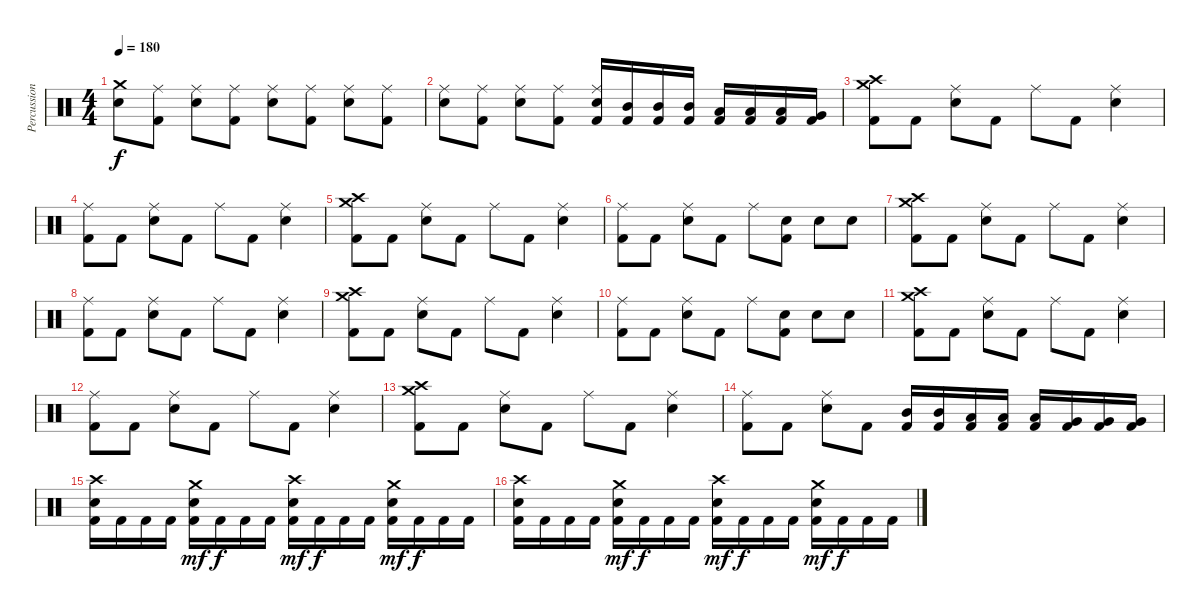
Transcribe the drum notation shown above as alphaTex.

\track ("Percussion" "Percussion") {instrument percussion}
\staff {score}
\articulation defaults
\ts (4 4)
\tempo 180
\clef neutral
\ks c
("Crash medium (hit)" "Electric Snare (hit)").8{dy f} ("Ride (middle)" "Kick (hit) 2").8 ("Ride (middle)" "Electric Snare (hit)").8 ("Ride (middle)" "Kick (hit) 2").8 ("Ride (middle)" "Electric Snare (hit)").8 ("Ride (middle)" "Kick (hit) 2").8 ("Ride (middle)" "Electric Snare (hit)").8 ("Ride (middle)" "Kick (hit) 2").8 |
("Ride (middle)" "Electric Snare (hit)").8 ("Ride (middle)" "Kick (hit) 2").8 ("Ride (middle)" "Electric Snare (hit)").8 ("Ride (middle)" "Kick (hit) 2").8 ("Ride (middle)" "Electric Snare (hit)" "Kick (hit) 2").16 ("Mid Tom (hit)" "Kick (hit) 2").16 ("Mid Tom (hit)" "Kick (hit) 2").16 ("Mid Tom (hit)" "Kick (hit) 2").16 ("Low Tom (hit)" "Kick (hit) 2").16 ("Low Tom (hit)" "Kick (hit) 2").16 ("Low Tom (hit)" "Kick (hit) 2").16 ("Very Low Tom (hit)" "Kick (hit) 2").16 |
("Crash high (hit)" "Crash medium (hit)" "Kick (hit) 2").8 "Kick (hit) 2".8 ("Ride (middle)" "Electric Snare (hit)").8 "Kick (hit) 2".8 "Ride (middle)".8 "Kick (hit) 2".8 ("Ride (middle)" "Electric Snare (hit)").4 |
("Ride (middle)" "Kick (hit) 2").8 "Kick (hit) 2".8 ("Ride (middle)" "Electric Snare (hit)").8 "Kick (hit) 2".8 "Ride (middle)".8 "Kick (hit) 2".8 ("Ride (middle)" "Electric Snare (hit)").4 |
("Crash high (hit)" "Crash medium (hit)" "Kick (hit) 2").8 "Kick (hit) 2".8 ("Ride (middle)" "Electric Snare (hit)").8 "Kick (hit) 2".8 "Ride (middle)".8 "Kick (hit) 2".8 ("Ride (middle)" "Electric Snare (hit)").4 |
("Ride (middle)" "Kick (hit) 2").8 "Kick (hit) 2".8 ("Ride (middle)" "Electric Snare (hit)").8 "Kick (hit) 2".8 "Ride (middle)".8 ("Electric Snare (hit)" "Kick (hit) 2").8 "Electric Snare (hit)".8 "Electric Snare (hit)".8 |
("Crash high (hit)" "Crash medium (hit)" "Kick (hit) 2").8 "Kick (hit) 2".8 ("Ride (middle)" "Electric Snare (hit)").8 "Kick (hit) 2".8 "Ride (middle)".8 "Kick (hit) 2".8 ("Ride (middle)" "Electric Snare (hit)").4 |
("Ride (middle)" "Kick (hit) 2").8 "Kick (hit) 2".8 ("Ride (middle)" "Electric Snare (hit)").8 "Kick (hit) 2".8 "Ride (middle)".8 "Kick (hit) 2".8 ("Ride (middle)" "Electric Snare (hit)").4 |
("Crash high (hit)" "Crash medium (hit)" "Kick (hit) 2").8 "Kick (hit) 2".8 ("Ride (middle)" "Electric Snare (hit)").8 "Kick (hit) 2".8 "Ride (middle)".8 "Kick (hit) 2".8 ("Ride (middle)" "Electric Snare (hit)").4 |
("Ride (middle)" "Kick (hit) 2").8 "Kick (hit) 2".8 ("Ride (middle)" "Electric Snare (hit)").8 "Kick (hit) 2".8 "Ride (middle)".8 ("Electric Snare (hit)" "Kick (hit) 2").8 "Electric Snare (hit)".8 "Electric Snare (hit)".8 |
("Crash high (hit)" "Crash medium (hit)" "Kick (hit) 2").8 "Kick (hit) 2".8 ("Ride (middle)" "Electric Snare (hit)").8 "Kick (hit) 2".8 "Ride (middle)".8 "Kick (hit) 2".8 ("Ride (middle)" "Electric Snare (hit)").4 |
("Ride (middle)" "Kick (hit) 2").8 "Kick (hit) 2".8 ("Ride (middle)" "Electric Snare (hit)").8 "Kick (hit) 2".8 "Ride (middle)".8 "Kick (hit) 2".8 ("Ride (middle)" "Electric Snare (hit)").4 |
("Crash high (hit)" "Crash medium (hit)" "Kick (hit) 2").8 "Kick (hit) 2".8 ("Ride (middle)" "Electric Snare (hit)").8 "Kick (hit) 2".8 "Ride (middle)".8 "Kick (hit) 2".8 ("Ride (middle)" "Electric Snare (hit)").4 |
("Ride (middle)" "Kick (hit) 2").8 "Kick (hit) 2".8 ("Ride (middle)" "Electric Snare (hit)").8 "Kick (hit) 2".8 ("Mid Tom (hit)" "Kick (hit) 2").16 ("Mid Tom (hit)" "Kick (hit) 2").16 ("Low Tom (hit)" "Kick (hit) 2").16 ("Low Tom (hit)" "Kick (hit) 2").16 ("Low Tom (hit)" "Kick (hit) 2").16 ("Very Low Tom (hit)" "Kick (hit) 2").16 ("Very Low Tom (hit)" "Kick (hit) 2").16 ("Very Low Tom (hit)" "Kick (hit) 2").16 |
("Crash high (hit)" "Electric Snare (hit)" "Kick (hit) 2").16 "Kick (hit) 2".16 "Kick (hit) 2".16 "Kick (hit) 2".16 ("Crash medium (hit)" "Electric Snare (hit)" "Kick (hit) 2").16{dy mf} "Kick (hit) 2".16{dy f} "Kick (hit) 2".16 "Kick (hit) 2".16 ("Crash high (hit)" "Electric Snare (hit)" "Kick (hit) 2").16{dy mf} "Kick (hit) 2".16{dy f} "Kick (hit) 2".16 "Kick (hit) 2".16 ("Crash medium (hit)" "Electric Snare (hit)" "Kick (hit) 2").16{dy mf} "Kick (hit) 2".16{dy f} "Kick (hit) 2".16 "Kick (hit) 2".16 |
("Crash high (hit)" "Electric Snare (hit)" "Kick (hit) 2").16 "Kick (hit) 2".16 "Kick (hit) 2".16 "Kick (hit) 2".16 ("Crash medium (hit)" "Electric Snare (hit)" "Kick (hit) 2").16{dy mf} "Kick (hit) 2".16{dy f} "Kick (hit) 2".16 "Kick (hit) 2".16 ("Crash high (hit)" "Electric Snare (hit)" "Kick (hit) 2").16{dy mf} "Kick (hit) 2".16{dy f} "Kick (hit) 2".16 "Kick (hit) 2".16 ("Crash medium (hit)" "Electric Snare (hit)" "Kick (hit) 2").16{dy mf} "Kick (hit) 2".16{dy f} "Kick (hit) 2".16 "Kick (hit) 2".16
